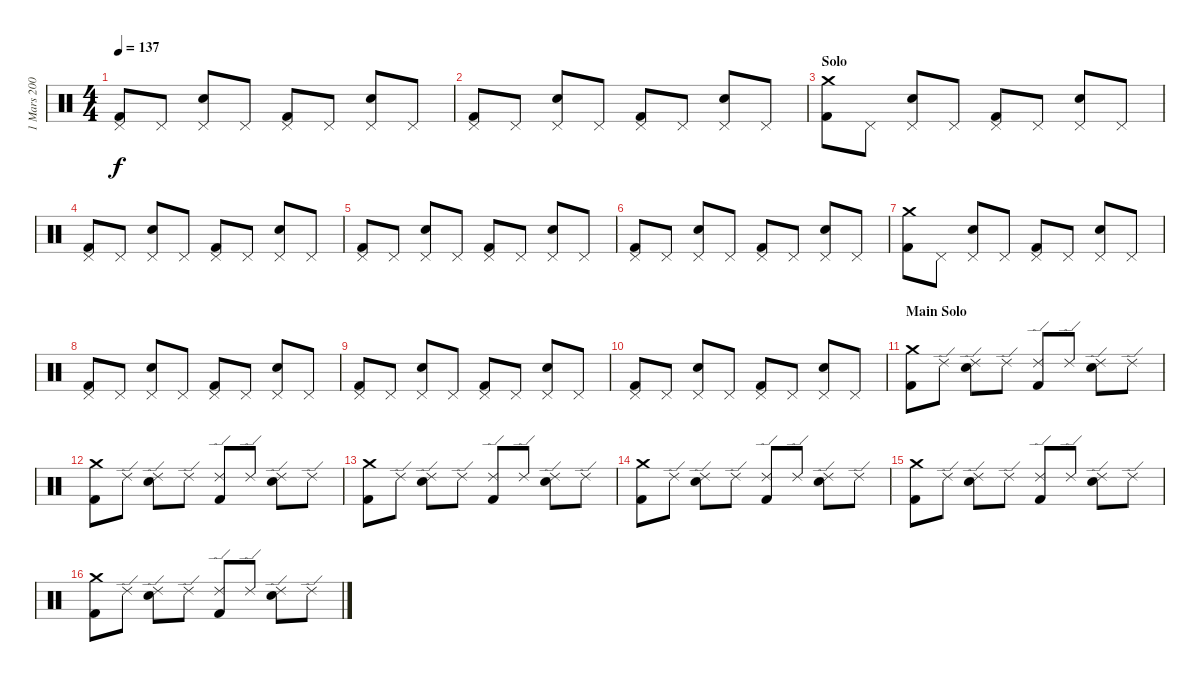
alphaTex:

\track ("1 Mars 2004" "1 Mars 200") {instrument percussion}
\staff {score}
\articulation defaults
\ts (4 4)
\tempo 137
\clef neutral
\ks c
("Pedal Hi-Hat (hit)" "Kick (hit) 2").8{dy f} "Pedal Hi-Hat (hit)".8 ("Pedal Hi-Hat (hit)" "Electric Snare (hit)").8 "Pedal Hi-Hat (hit)".8 ("Pedal Hi-Hat (hit)" "Kick (hit) 2").8 "Pedal Hi-Hat (hit)".8 ("Pedal Hi-Hat (hit)" "Electric Snare (hit)").8 "Pedal Hi-Hat (hit)".8 |
("Pedal Hi-Hat (hit)" "Kick (hit) 2").8 "Pedal Hi-Hat (hit)".8 ("Pedal Hi-Hat (hit)" "Electric Snare (hit)").8 "Pedal Hi-Hat (hit)".8 ("Pedal Hi-Hat (hit)" "Kick (hit) 2").8 "Pedal Hi-Hat (hit)".8 ("Pedal Hi-Hat (hit)" "Electric Snare (hit)").8 "Pedal Hi-Hat (hit)".8 |
\section ("" "Solo")
("Crash medium (hit)" "Kick (hit) 2").8 "Pedal Hi-Hat (hit)".8 ("Pedal Hi-Hat (hit)" "Electric Snare (hit)").8 "Pedal Hi-Hat (hit)".8 ("Pedal Hi-Hat (hit)" "Kick (hit) 2").8 "Pedal Hi-Hat (hit)".8 ("Pedal Hi-Hat (hit)" "Electric Snare (hit)").8 "Pedal Hi-Hat (hit)".8 |
("Pedal Hi-Hat (hit)" "Kick (hit) 2").8 "Pedal Hi-Hat (hit)".8 ("Pedal Hi-Hat (hit)" "Electric Snare (hit)").8 "Pedal Hi-Hat (hit)".8 ("Pedal Hi-Hat (hit)" "Kick (hit) 2").8 "Pedal Hi-Hat (hit)".8 ("Pedal Hi-Hat (hit)" "Electric Snare (hit)").8 "Pedal Hi-Hat (hit)".8 |
("Pedal Hi-Hat (hit)" "Kick (hit) 2").8 "Pedal Hi-Hat (hit)".8 ("Pedal Hi-Hat (hit)" "Electric Snare (hit)").8 "Pedal Hi-Hat (hit)".8 ("Pedal Hi-Hat (hit)" "Kick (hit) 2").8 "Pedal Hi-Hat (hit)".8 ("Pedal Hi-Hat (hit)" "Electric Snare (hit)").8 "Pedal Hi-Hat (hit)".8 |
("Pedal Hi-Hat (hit)" "Kick (hit) 2").8 "Pedal Hi-Hat (hit)".8 ("Pedal Hi-Hat (hit)" "Electric Snare (hit)").8 "Pedal Hi-Hat (hit)".8 ("Pedal Hi-Hat (hit)" "Kick (hit) 2").8 "Pedal Hi-Hat (hit)".8 ("Pedal Hi-Hat (hit)" "Electric Snare (hit)").8 "Pedal Hi-Hat (hit)".8 |
("Crash medium (hit)" "Kick (hit) 2").8 "Pedal Hi-Hat (hit)".8 ("Pedal Hi-Hat (hit)" "Electric Snare (hit)").8 "Pedal Hi-Hat (hit)".8 ("Pedal Hi-Hat (hit)" "Kick (hit) 2").8 "Pedal Hi-Hat (hit)".8 ("Pedal Hi-Hat (hit)" "Electric Snare (hit)").8 "Pedal Hi-Hat (hit)".8 |
("Pedal Hi-Hat (hit)" "Kick (hit) 2").8 "Pedal Hi-Hat (hit)".8 ("Pedal Hi-Hat (hit)" "Electric Snare (hit)").8 "Pedal Hi-Hat (hit)".8 ("Pedal Hi-Hat (hit)" "Kick (hit) 2").8 "Pedal Hi-Hat (hit)".8 ("Pedal Hi-Hat (hit)" "Electric Snare (hit)").8 "Pedal Hi-Hat (hit)".8 |
("Pedal Hi-Hat (hit)" "Kick (hit) 2").8 "Pedal Hi-Hat (hit)".8 ("Pedal Hi-Hat (hit)" "Electric Snare (hit)").8 "Pedal Hi-Hat (hit)".8 ("Pedal Hi-Hat (hit)" "Kick (hit) 2").8 "Pedal Hi-Hat (hit)".8 ("Pedal Hi-Hat (hit)" "Electric Snare (hit)").8 "Pedal Hi-Hat (hit)".8 |
("Pedal Hi-Hat (hit)" "Kick (hit) 2").8 "Pedal Hi-Hat (hit)".8 ("Pedal Hi-Hat (hit)" "Electric Snare (hit)").8 "Pedal Hi-Hat (hit)".8 ("Pedal Hi-Hat (hit)" "Kick (hit) 2").8 "Pedal Hi-Hat (hit)".8 ("Pedal Hi-Hat (hit)" "Electric Snare (hit)").8 "Pedal Hi-Hat (hit)".8 |
\section ("" "Main Solo")
("Crash medium (hit)" "Kick (hit) 2").8 "Ride (edge) 2".8 ("Ride (edge) 2" "Electric Snare (hit)").8 "Ride (edge) 2".8 ("Ride (edge) 2" "Kick (hit) 2").8 "Ride (edge) 2".8 ("Ride (edge) 2" "Electric Snare (hit)").8 "Ride (edge) 2".8 |
("Crash medium (hit)" "Kick (hit) 2").8 "Ride (edge) 2".8 ("Ride (edge) 2" "Electric Snare (hit)").8 "Ride (edge) 2".8 ("Ride (edge) 2" "Kick (hit) 2").8 "Ride (edge) 2".8 ("Ride (edge) 2" "Electric Snare (hit)").8 "Ride (edge) 2".8 |
("Crash medium (hit)" "Kick (hit) 2").8 "Ride (edge) 2".8 ("Ride (edge) 2" "Electric Snare (hit)").8 "Ride (edge) 2".8 ("Ride (edge) 2" "Kick (hit) 2").8 "Ride (edge) 2".8 ("Ride (edge) 2" "Electric Snare (hit)").8 "Ride (edge) 2".8 |
("Crash medium (hit)" "Kick (hit) 2").8 "Ride (edge) 2".8 ("Ride (edge) 2" "Electric Snare (hit)").8 "Ride (edge) 2".8 ("Ride (edge) 2" "Kick (hit) 2").8 "Ride (edge) 2".8 ("Ride (edge) 2" "Electric Snare (hit)").8 "Ride (edge) 2".8 |
("Crash medium (hit)" "Kick (hit) 2").8 "Ride (edge) 2".8 ("Ride (edge) 2" "Electric Snare (hit)").8 "Ride (edge) 2".8 ("Ride (edge) 2" "Kick (hit) 2").8 "Ride (edge) 2".8 ("Ride (edge) 2" "Electric Snare (hit)").8 "Ride (edge) 2".8 |
("Crash medium (hit)" "Kick (hit) 2").8 "Ride (edge) 2".8 ("Ride (edge) 2" "Electric Snare (hit)").8 "Ride (edge) 2".8 ("Ride (edge) 2" "Kick (hit) 2").8 "Ride (edge) 2".8 ("Ride (edge) 2" "Electric Snare (hit)").8 "Ride (edge) 2".8
